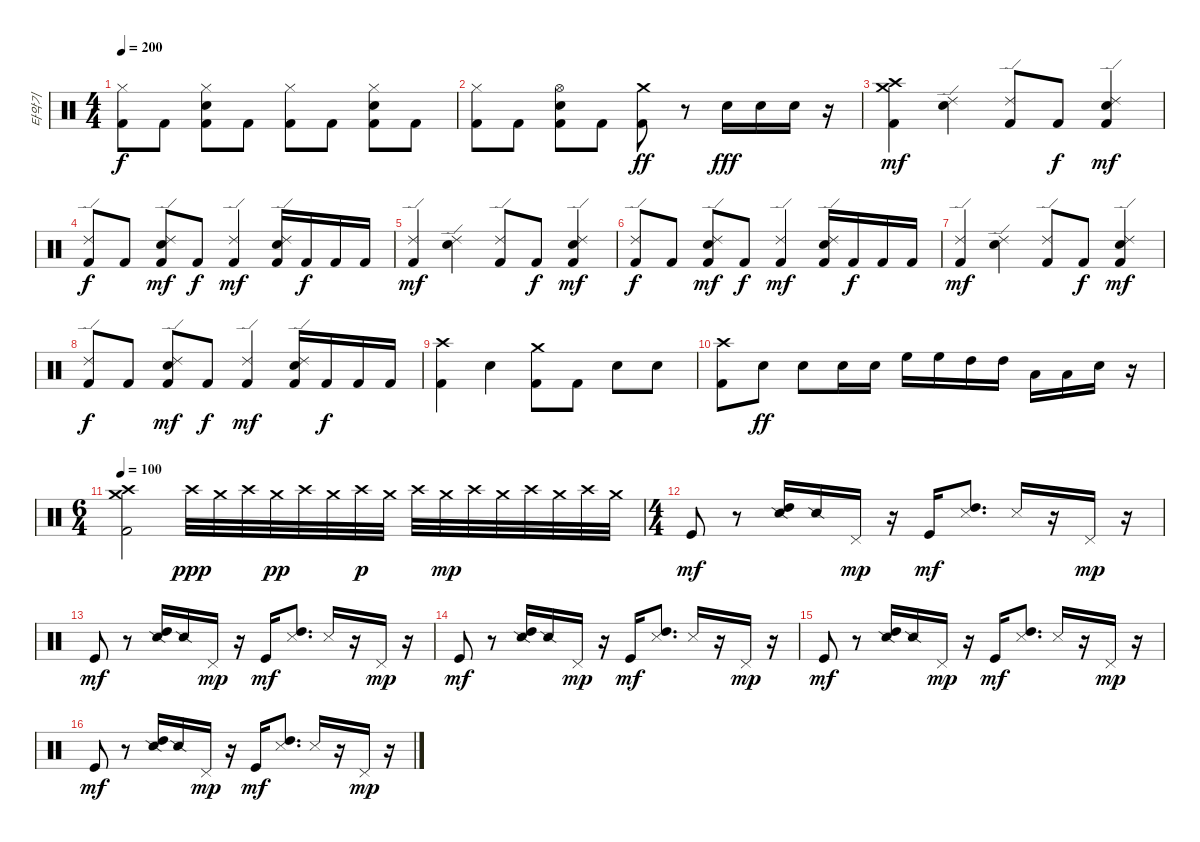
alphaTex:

\track ("타악기" "타악기") {instrument percussion}
\staff {score}
\articulation defaults
\ts (4 4)
\tempo 200
\clef neutral
\ks c
("Hi-Hat (closed)" "Kick (hit) 2").8{dy f} "Kick (hit) 2".8 ("Hi-Hat (closed)" "Snare (hit) 2" "Kick (hit) 2").8 "Kick (hit) 2".8 ("Hi-Hat (closed)" "Kick (hit) 2").8 "Kick (hit) 2".8 ("Hi-Hat (closed)" "Snare (hit) 2" "Kick (hit) 2").8 "Kick (hit) 2".8 |
("Hi-Hat (closed)" "Kick (hit) 2").8 "Kick (hit) 2".8 ("Hi-Hat (open)" "Snare (hit) 2" "Kick (hit) 2").8 "Kick (hit) 2".8 ("Crash medium (hit)" "Kick (hit) 2").8{dy ff} r.8 "Snare (hit) 2".16{dy fff} "Snare (hit) 2".16 "Snare (hit) 2".16 r.16 |
("Crash high (hit)" "Crash medium (hit)" "Kick (hit) 2").4{dy mf} ("Ride (edge) 2" "Snare (hit) 2").4 ("Ride (edge) 2" "Kick (hit) 2").8 "Kick (hit) 2".8{dy f} ("Ride (edge) 2" "Snare (hit) 2" "Kick (hit) 2").4{dy mf} |
("Ride (edge) 2" "Kick (hit) 2").8{dy f} "Kick (hit) 2".8 ("Ride (edge) 2" "Snare (hit) 2" "Kick (hit) 2").8{dy mf} "Kick (hit) 2".8{dy f} ("Ride (edge) 2" "Kick (hit) 2").4{dy mf} ("Ride (edge) 2" "Snare (hit) 2" "Kick (hit) 2").16 "Kick (hit) 2".16{dy f} "Kick (hit) 2".16 "Kick (hit) 2".16 |
("Ride (edge) 2" "Kick (hit) 2").4{dy mf} ("Ride (edge) 2" "Snare (hit) 2").4 ("Ride (edge) 2" "Kick (hit) 2").8 "Kick (hit) 2".8{dy f} ("Ride (edge) 2" "Snare (hit) 2" "Kick (hit) 2").4{dy mf} |
("Ride (edge) 2" "Kick (hit) 2").8{dy f} "Kick (hit) 2".8 ("Ride (edge) 2" "Snare (hit) 2" "Kick (hit) 2").8{dy mf} "Kick (hit) 2".8{dy f} ("Ride (edge) 2" "Kick (hit) 2").4{dy mf} ("Ride (edge) 2" "Snare (hit) 2" "Kick (hit) 2").16 "Kick (hit) 2".16{dy f} "Kick (hit) 2".16 "Kick (hit) 2".16 |
("Ride (edge) 2" "Kick (hit) 2").4{dy mf} ("Ride (edge) 2" "Snare (hit) 2").4 ("Ride (edge) 2" "Kick (hit) 2").8 "Kick (hit) 2".8{dy f} ("Ride (edge) 2" "Snare (hit) 2" "Kick (hit) 2").4{dy mf} |
("Ride (edge) 2" "Kick (hit) 2").8{dy f} "Kick (hit) 2".8 ("Ride (edge) 2" "Snare (hit) 2" "Kick (hit) 2").8{dy mf} "Kick (hit) 2".8{dy f} ("Ride (edge) 2" "Kick (hit) 2").4{dy mf} ("Ride (edge) 2" "Snare (hit) 2" "Kick (hit) 2").16 "Kick (hit) 2".16{dy f} "Kick (hit) 2".16 "Kick (hit) 2".16 |
("Crash high (hit)" "Kick (hit) 2").4 "Snare (hit) 2".4 ("Crash medium (hit)" "Kick (hit) 2").8 "Kick (hit) 2".8 "Snare (hit) 2".8 "Snare (hit) 2".8 |
("Crash high (hit)" "Kick (hit) 2").8 "Snare (hit) 2".8{dy ff} "Snare (hit) 2".8 "Snare (hit) 2".16 "Snare (hit) 2".16 "High Floor Tom (hit)".16 "High Floor Tom (hit)".16 "High Tom (hit)".16 "High Tom (hit)".16 "Low Tom (hit)".16 "Low Tom (hit)".16 "Snare (hit) 2".16 r.16 |
\ts (6 4)
\tempo 100
("Crash high (hit)" "Crash medium (hit)" "Kick (hit) 2").2 "Crash high (hit)".32{dy ppp} "Crash medium (hit)".32 "Crash high (hit)".32 "Crash medium (hit)".32{dy pp} "Crash high (hit)".32 "Crash medium (hit)".32 "Crash high (hit)".32{dy p} "Crash medium (hit)".32 "Crash high (hit)".32 "Crash medium (hit)".32{dy mp} "Crash high (hit)".32 "Crash medium (hit)".32 "Crash high (hit)".32 "Crash medium (hit)".32 "Crash high (hit)".32 "Crash medium (hit)".32 |
\ts (4 4)
"Kick (hit)".8{dy mf} r.8 ("High Tom (hit)" "Snare (side stick) 2").16 "Snare (side stick) 2".16 "Pedal Hi-Hat (hit)".16{dy mp} r.16 "Kick (hit)".16{dy mf} ("High Tom (hit)" "Snare (side stick) 3").8{d} "Snare (side stick) 3".16 r.16 "Pedal Hi-Hat (hit)".16{dy mp} r.16 |
"Kick (hit)".8{dy mf} r.8 ("High Tom (hit)" "Snare (side stick) 2").16 "Snare (side stick) 2".16 "Pedal Hi-Hat (hit)".16{dy mp} r.16 "Kick (hit)".16{dy mf} ("High Tom (hit)" "Snare (side stick) 3").8{d} "Snare (side stick) 3".16 r.16 "Pedal Hi-Hat (hit)".16{dy mp} r.16 |
"Kick (hit)".8{dy mf} r.8 ("High Tom (hit)" "Snare (side stick) 2").16 "Snare (side stick) 2".16 "Pedal Hi-Hat (hit)".16{dy mp} r.16 "Kick (hit)".16{dy mf} ("High Tom (hit)" "Snare (side stick) 3").8{d} "Snare (side stick) 3".16 r.16 "Pedal Hi-Hat (hit)".16{dy mp} r.16 |
"Kick (hit)".8{dy mf} r.8 ("High Tom (hit)" "Snare (side stick) 2").16 "Snare (side stick) 2".16 "Pedal Hi-Hat (hit)".16{dy mp} r.16 "Kick (hit)".16{dy mf} ("High Tom (hit)" "Snare (side stick) 3").8{d} "Snare (side stick) 3".16 r.16 "Pedal Hi-Hat (hit)".16{dy mp} r.16 |
"Kick (hit)".8{dy mf} r.8 ("High Tom (hit)" "Snare (side stick) 2").16 "Snare (side stick) 2".16 "Pedal Hi-Hat (hit)".16{dy mp} r.16 "Kick (hit)".16{dy mf} ("High Tom (hit)" "Snare (side stick) 3").8{d} "Snare (side stick) 3".16 r.16 "Pedal Hi-Hat (hit)".16{dy mp} r.16
